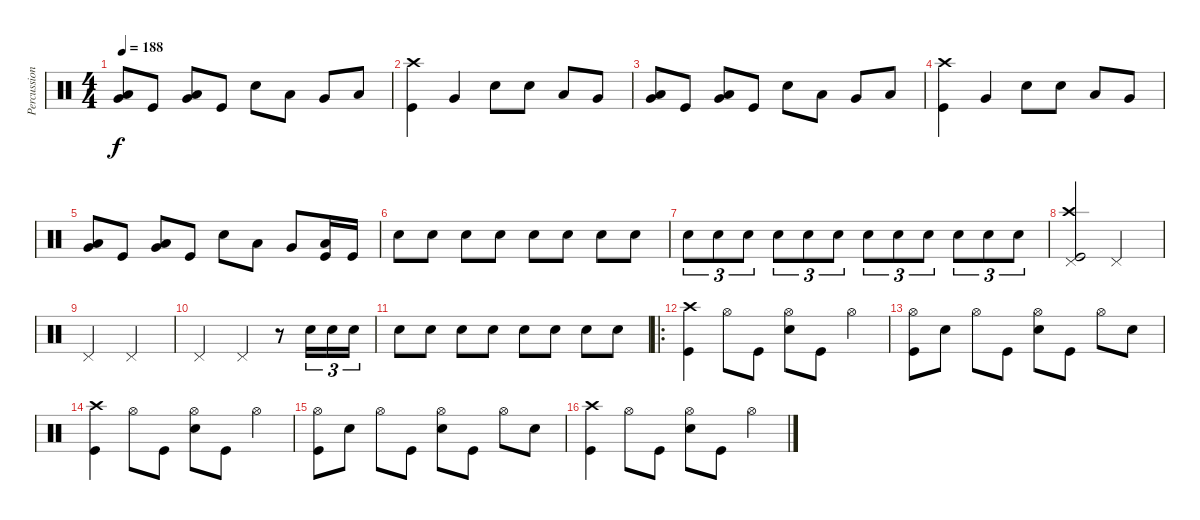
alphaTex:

\track ("Percussion" "Percussion") {instrument percussion}
\staff {score}
\articulation defaults
\ts (4 4)
\tempo 188
\clef neutral
\ks c
("Low Floor Tom (hit)" "Very Low Tom (hit)").8{dy f} "Kick (hit)".8 ("Low Floor Tom (hit)" "Very Low Tom (hit)").8 "Kick (hit)".8 "Snare (hit) 2".8 "Low Floor Tom (hit)".8 "Very Low Tom (hit)".8 "Low Floor Tom (hit)".8 |
("Kick (hit)" "Crash high (hit)").4 "Very Low Tom (hit)".4 "Snare (hit) 2".8 "Snare (hit) 2".8 "Low Tom (hit)".8 "Very Low Tom (hit)".8 |
("Low Floor Tom (hit)" "Very Low Tom (hit)").8 "Kick (hit)".8 ("Low Floor Tom (hit)" "Very Low Tom (hit)").8 "Kick (hit)".8 "Snare (hit) 2".8 "Low Floor Tom (hit)".8 "Very Low Tom (hit)".8 "Low Floor Tom (hit)".8 |
("Kick (hit)" "Crash high (hit)").4 "Very Low Tom (hit)".4 "Snare (hit) 2".8 "Snare (hit) 2".8 "Low Tom (hit)".8 "Very Low Tom (hit)".8 |
("Low Floor Tom (hit)" "Very Low Tom (hit)").8 "Kick (hit)".8 ("Low Floor Tom (hit)" "Very Low Tom (hit)").8 "Kick (hit)".8 "Snare (hit) 2".8 "Low Floor Tom (hit)".8 "Very Low Tom (hit)".8 ("Low Floor Tom (hit)" "Kick (hit)").16 "Kick (hit)".16 |
"Snare (hit) 2".8 "Snare (hit) 2".8 "Snare (hit) 2".8 "Snare (hit) 2".8 "Snare (hit) 2".8 "Snare (hit) 2".8 "Snare (hit) 2".8 "Snare (hit) 2".8 |
"Snare (hit) 2".8{tu (3 2)} "Snare (hit) 2".8{tu (3 2)} "Snare (hit) 2".8{tu (3 2)} "Snare (hit) 2".8{tu (3 2)} "Snare (hit) 2".8{tu (3 2)} "Snare (hit) 2".8{tu (3 2)} "Snare (hit) 2".8{tu (3 2)} "Snare (hit) 2".8{tu (3 2)} "Snare (hit) 2".8{tu (3 2)} "Snare (hit) 2".8{tu (3 2)} "Snare (hit) 2".8{tu (3 2)} "Snare (hit) 2".8{tu (3 2)} |
("Pedal Hi-Hat (hit)" "Kick (hit)" "Crash high (hit)").2 "Pedal Hi-Hat (hit)".2 |
"Pedal Hi-Hat (hit)".2 "Pedal Hi-Hat (hit)".2 |
"Pedal Hi-Hat (hit)".2 "Pedal Hi-Hat (hit)".4 r.8 "Snare (hit) 2".16{tu (3 2)} "Snare (hit) 2".16{tu (3 2)} "Snare (hit) 2".16{tu (3 2)} |
"Snare (hit) 2".8 "Snare (hit) 2".8 "Snare (hit) 2".8 "Snare (hit) 2".8 "Snare (hit) 2".8 "Snare (hit) 2".8 "Snare (hit) 2".8 "Snare (hit) 2".8 |
\ro
("Kick (hit)" "Crash high (hit)").4 "Hi-Hat (open)".8 "Kick (hit)".8 ("Snare (hit) 2" "Hi-Hat (open)").8 "Kick (hit)".8 "Hi-Hat (open)".4 |
("Kick (hit)" "Hi-Hat (open)").8 "Snare (hit) 2".8 "Hi-Hat (open)".8 "Kick (hit)".8 ("Snare (hit) 2" "Hi-Hat (open)").8 "Kick (hit)".8 "Hi-Hat (open)".8 "Snare (hit) 2".8 |
("Kick (hit)" "Crash high (hit)").4 "Hi-Hat (open)".8 "Kick (hit)".8 ("Snare (hit) 2" "Hi-Hat (open)").8 "Kick (hit)".8 "Hi-Hat (open)".4 |
("Kick (hit)" "Hi-Hat (open)").8 "Snare (hit) 2".8 "Hi-Hat (open)".8 "Kick (hit)".8 ("Snare (hit) 2" "Hi-Hat (open)").8 "Kick (hit)".8 "Hi-Hat (open)".8 "Snare (hit) 2".8 |
("Kick (hit)" "Crash high (hit)").4 "Hi-Hat (open)".8 "Kick (hit)".8 ("Snare (hit) 2" "Hi-Hat (open)").8 "Kick (hit)".8 "Hi-Hat (open)".4
